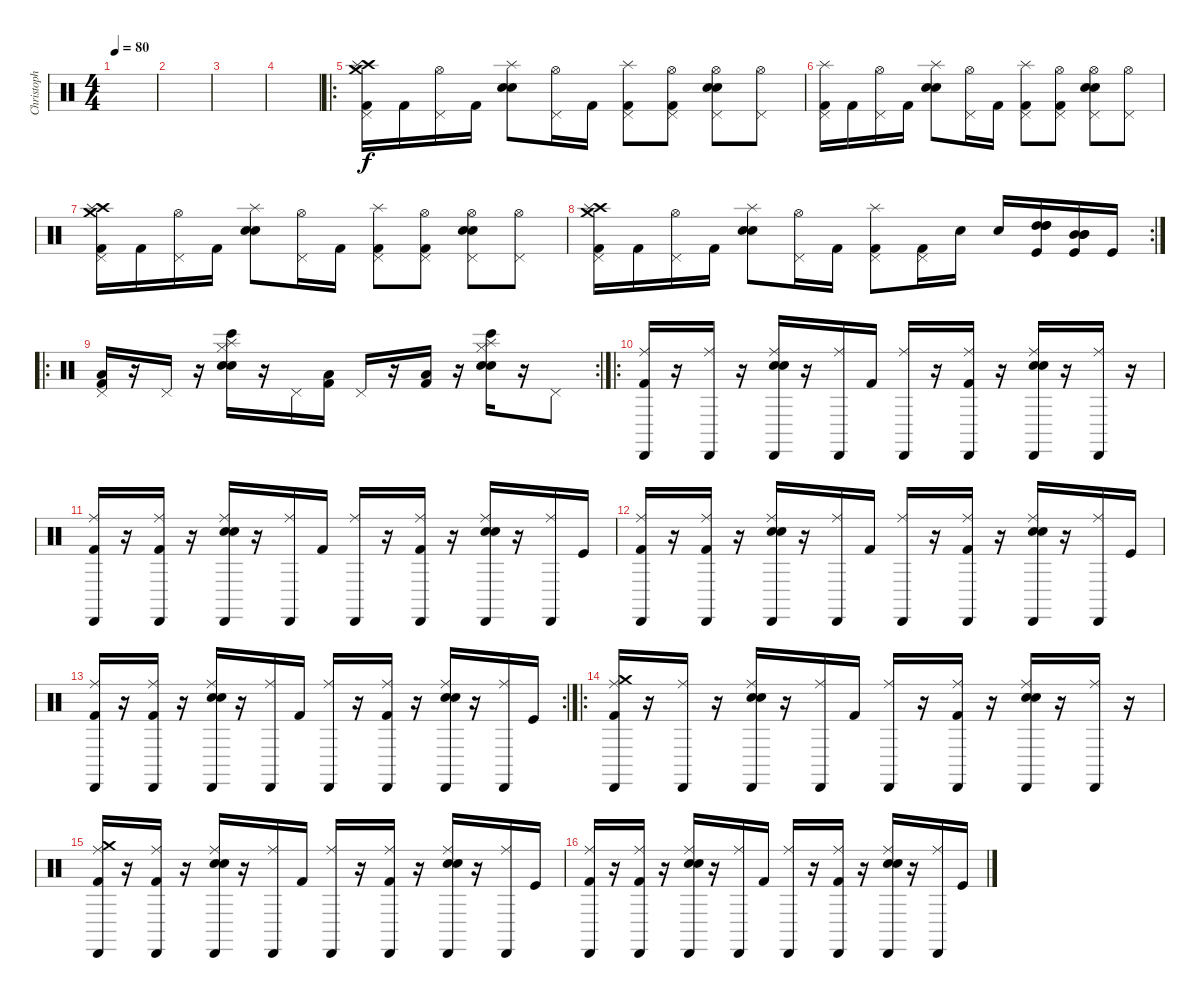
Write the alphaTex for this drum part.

\track ("Christoph" "Christoph") {instrument percussion}
\staff {score}
\articulation defaults
\ts (4 4)
\section ("" "")
\tempo 80
\clef neutral
\ks c
|
|
|
|
\ro
("Kick (hit) 2" "Crash high (hit)" "Pedal Hi-Hat (hit)" "Splash (hit)" "Crash medium (hit)").16 "Kick (hit) 2".16 ("Pedal Hi-Hat (hit)" "Hi-Hat (open)").16 "Kick (hit) 2".16 ("Snare (hit) 2" "Electric Snare (hit)" "Splash (hit)").8 ("Pedal Hi-Hat (hit)" "Hi-Hat (open)").16 "Kick (hit) 2".16 ("Kick (hit) 2" "Pedal Hi-Hat (hit)" "Splash (hit)").8 ("Kick (hit) 2" "Pedal Hi-Hat (hit)" "Hi-Hat (open)").8 ("Snare (hit) 2" "Electric Snare (hit)" "Pedal Hi-Hat (hit)" "Hi-Hat (open)").8 ("Pedal Hi-Hat (hit)" "Hi-Hat (open)").8 |
("Kick (hit) 2" "Pedal Hi-Hat (hit)" "Splash (hit)").16 "Kick (hit) 2".16 ("Pedal Hi-Hat (hit)" "Hi-Hat (open)").16 "Kick (hit) 2".16 ("Snare (hit) 2" "Electric Snare (hit)" "Splash (hit)").8 ("Pedal Hi-Hat (hit)" "Hi-Hat (open)").16 "Kick (hit) 2".16 ("Kick (hit) 2" "Pedal Hi-Hat (hit)" "Splash (hit)").8 ("Kick (hit) 2" "Pedal Hi-Hat (hit)" "Hi-Hat (open)").8 ("Snare (hit) 2" "Electric Snare (hit)" "Pedal Hi-Hat (hit)" "Hi-Hat (open)").8 ("Pedal Hi-Hat (hit)" "Hi-Hat (open)").8 |
("Kick (hit) 2" "Crash high (hit)" "Pedal Hi-Hat (hit)" "Splash (hit)" "Crash medium (hit)").16 "Kick (hit) 2".16 ("Pedal Hi-Hat (hit)" "Hi-Hat (open)").16 "Kick (hit) 2".16 ("Snare (hit) 2" "Electric Snare (hit)" "Splash (hit)").8 ("Pedal Hi-Hat (hit)" "Hi-Hat (open)").16 "Kick (hit) 2".16 ("Kick (hit) 2" "Pedal Hi-Hat (hit)" "Splash (hit)").8 ("Kick (hit) 2" "Pedal Hi-Hat (hit)" "Hi-Hat (open)").8 ("Snare (hit) 2" "Electric Snare (hit)" "Pedal Hi-Hat (hit)" "Hi-Hat (open)").8 ("Pedal Hi-Hat (hit)" "Hi-Hat (open)").8 |
\rc 2
("Kick (hit) 2" "Crash high (hit)" "Pedal Hi-Hat (hit)" "Splash (hit)" "Crash medium (hit)").16 "Kick (hit) 2".16 ("Pedal Hi-Hat (hit)" "Hi-Hat (open)").16 "Kick (hit) 2".16 ("Snare (hit) 2" "Electric Snare (hit)" "Splash (hit)").8 ("Pedal Hi-Hat (hit)" "Hi-Hat (open)").16 "Kick (hit) 2".16 ("Kick (hit) 2" "Pedal Hi-Hat (hit)" "Splash (hit)").8 ("Kick (hit) 2" "Pedal Hi-Hat (hit)").16 "Electric Snare (hit)".16 "Electric Snare (hit)".16 ("Kick (hit)" "High Tom (hit)" "High Tom (hit)" "High Tom (hit)").16 ("Kick (hit)" "Mid Tom (hit)" "Mid Tom (hit)" "Mid Tom (hit)").16 "Kick (hit)".16 |
\ro
\rc 2
("Kick (hit) 2" "Low Floor Tom (hit)" "Pedal Hi-Hat (hit)").16 r.16 "Pedal Hi-Hat (hit)".16 r.16 ("Electric Snare (hit)" "Bongo High (hit)" "Hand Clap (hit)" "Hi-Hat (closed)" "Splash (hit)").16 r.16 "Pedal Hi-Hat (hit)".16 ("Kick (hit) 2" "Low Floor Tom (hit)").16 "Pedal Hi-Hat (hit)".16 r.16 ("Kick (hit) 2" "Low Floor Tom (hit)").16 r.16 ("Electric Snare (hit)" "Bongo High (hit)" "Hand Clap (hit)" "Hi-Hat (closed)" "Splash (hit)").16 r.16 "Pedal Hi-Hat (hit)".8 |
\ro
("Kick (hit) 2" "Ride (middle)" "Cabasa (hit)").16 r.16 ("Ride (middle)" "Cabasa (hit)").16 r.16 ("Snare (hit) 2" "Electric Snare (hit)" "Ride (middle)" "Cabasa (hit)").16 r.16 ("Ride (middle)" "Cabasa (hit)").16 "Kick (hit) 2".16 ("Ride (middle)" "Cabasa (hit)").16 r.16 ("Kick (hit) 2" "Ride (middle)" "Cabasa (hit)").16 r.16 ("Snare (hit) 2" "Electric Snare (hit)" "Ride (middle)" "Cabasa (hit)").16 r.16 ("Ride (middle)" "Cabasa (hit)").16 r.16 |
("Kick (hit) 2" "Ride (middle)" "Cabasa (hit)").16 r.16 ("Kick (hit) 2" "Ride (middle)" "Cabasa (hit)").16 r.16 ("Snare (hit) 2" "Electric Snare (hit)" "Ride (middle)" "Cabasa (hit)").16 r.16 ("Ride (middle)" "Cabasa (hit)").16 "Kick (hit) 2".16 ("Ride (middle)" "Cabasa (hit)").16 r.16 ("Kick (hit) 2" "Ride (middle)" "Cabasa (hit)").16 r.16 ("Snare (hit) 2" "Electric Snare (hit)" "Ride (middle)" "Cabasa (hit)").16 r.16 ("Ride (middle)" "Cabasa (hit)").16 "Kick (hit)".16 |
("Kick (hit) 2" "Ride (middle)" "Cabasa (hit)").16 r.16 ("Kick (hit) 2" "Ride (middle)" "Cabasa (hit)").16 r.16 ("Snare (hit) 2" "Electric Snare (hit)" "Ride (middle)" "Cabasa (hit)").16 r.16 ("Ride (middle)" "Cabasa (hit)").16 "Kick (hit) 2".16 ("Ride (middle)" "Cabasa (hit)").16 r.16 ("Kick (hit) 2" "Ride (middle)" "Cabasa (hit)").16 r.16 ("Snare (hit) 2" "Electric Snare (hit)" "Ride (middle)" "Cabasa (hit)").16 r.16 ("Ride (middle)" "Cabasa (hit)").16 "Kick (hit)".16 |
\rc 2
("Kick (hit) 2" "Ride (middle)" "Cabasa (hit)").16 r.16 ("Kick (hit) 2" "Ride (middle)" "Cabasa (hit)").16 r.16 ("Snare (hit) 2" "Electric Snare (hit)" "Ride (middle)" "Cabasa (hit)").16 r.16 ("Ride (middle)" "Cabasa (hit)").16 "Kick (hit) 2".16 ("Ride (middle)" "Cabasa (hit)").16 r.16 ("Kick (hit) 2" "Ride (middle)" "Cabasa (hit)").16 r.16 ("Snare (hit) 2" "Electric Snare (hit)" "Ride (middle)" "Cabasa (hit)").16 r.16 ("Ride (middle)" "Cabasa (hit)").16 "Kick (hit)".16 |
\ro
("Kick (hit) 2" "Crash medium (hit)" "Ride (middle)" "Cabasa (hit)").16 r.16 ("Ride (middle)" "Cabasa (hit)").16 r.16 ("Snare (hit) 2" "Electric Snare (hit)" "Ride (middle)" "Cabasa (hit)").16 r.16 ("Ride (middle)" "Cabasa (hit)").16 "Kick (hit) 2".16 ("Ride (middle)" "Cabasa (hit)").16 r.16 ("Kick (hit) 2" "Ride (middle)" "Cabasa (hit)").16 r.16 ("Snare (hit) 2" "Electric Snare (hit)" "Ride (middle)" "Cabasa (hit)").16 r.16 ("Ride (middle)" "Cabasa (hit)").16 r.16 |
("Kick (hit) 2" "Crash medium (hit)" "Ride (middle)" "Cabasa (hit)").16 r.16 ("Kick (hit) 2" "Ride (middle)" "Cabasa (hit)").16 r.16 ("Snare (hit) 2" "Electric Snare (hit)" "Ride (middle)" "Cabasa (hit)").16 r.16 ("Ride (middle)" "Cabasa (hit)").16 "Kick (hit) 2".16 ("Ride (middle)" "Cabasa (hit)").16 r.16 ("Kick (hit) 2" "Ride (middle)" "Cabasa (hit)").16 r.16 ("Snare (hit) 2" "Electric Snare (hit)" "Ride (middle)" "Cabasa (hit)").16 r.16 ("Ride (middle)" "Cabasa (hit)").16 "Kick (hit)".16 |
("Kick (hit) 2" "Ride (middle)" "Cabasa (hit)").16 r.16 ("Kick (hit) 2" "Ride (middle)" "Cabasa (hit)").16 r.16 ("Snare (hit) 2" "Electric Snare (hit)" "Ride (middle)" "Cabasa (hit)").16 r.16 ("Ride (middle)" "Cabasa (hit)").16 "Kick (hit) 2".16 ("Ride (middle)" "Cabasa (hit)").16 r.16 ("Kick (hit) 2" "Ride (middle)" "Cabasa (hit)").16 r.16 ("Snare (hit) 2" "Electric Snare (hit)" "Ride (middle)" "Cabasa (hit)").16 r.16 ("Ride (middle)" "Cabasa (hit)").16 "Kick (hit)".16
